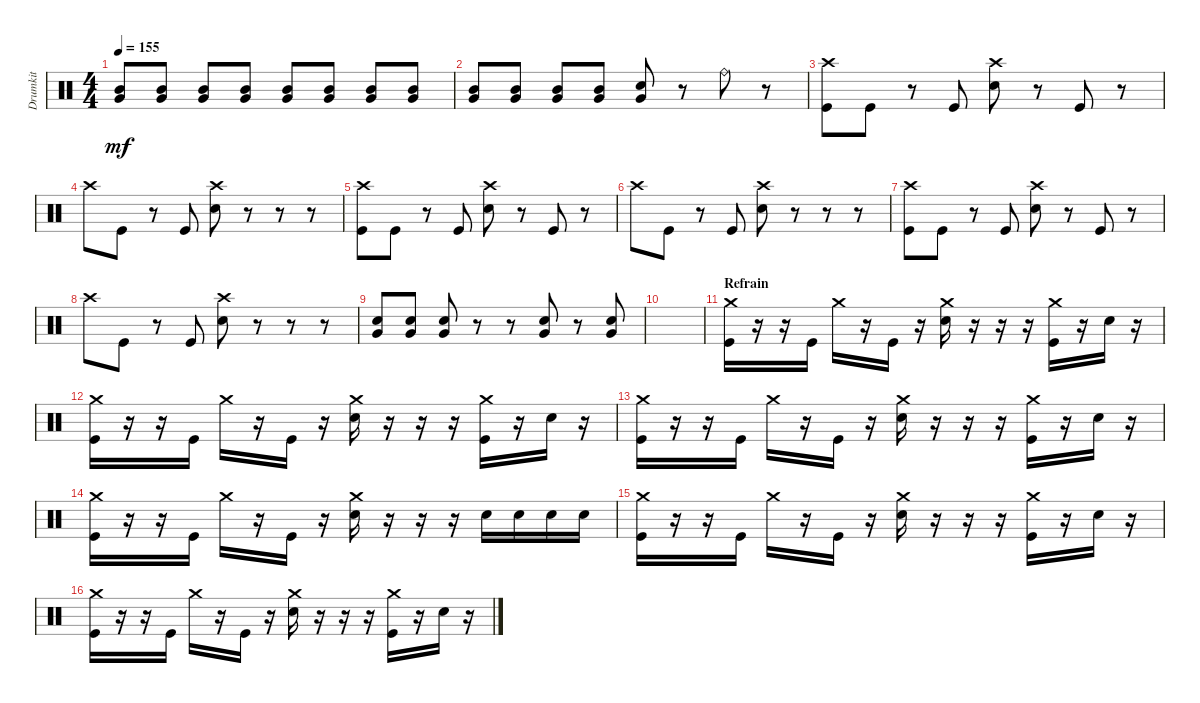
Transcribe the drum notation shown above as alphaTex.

\track ("Drumkit" "Drumkit") {instrument percussion}
\staff {score}
\articulation defaults
\ts (4 4)
\tempo 155
\clef neutral
\ks c
("Very Low Tom (hit)" "Mid Tom (hit)").8{dy mf} ("Very Low Tom (hit)" "Mid Tom (hit)").8 ("Very Low Tom (hit)" "Mid Tom (hit)").8 ("Very Low Tom (hit)" "Mid Tom (hit)").8 ("Very Low Tom (hit)" "Mid Tom (hit)").8 ("Very Low Tom (hit)" "Mid Tom (hit)").8 ("Very Low Tom (hit)" "Mid Tom (hit)").8 ("Very Low Tom (hit)" "Mid Tom (hit)").8 |
("Mid Tom (hit)" "Very Low Tom (hit)").8 ("Mid Tom (hit)" "Very Low Tom (hit)").8 ("Mid Tom (hit)" "Very Low Tom (hit)").8 ("Mid Tom (hit)" "Very Low Tom (hit)").8 ("Very Low Tom (hit)" "Snare (hit) 2").8 r.8 "Ride (bell)".8 r.8 |
("Kick (hit)" "Crash high (hit)").8 "Kick (hit)".8 r.8 "Kick (hit)".8 ("Snare (hit) 2" "Crash high (hit)").8 r.8 "Kick (hit)".8 r.8 |
"Crash high (hit)".8 "Kick (hit)".8 r.8 "Kick (hit)".8 ("Snare (hit) 2" "Crash high (hit)").8 r.8 r.8 r.8 |
("Kick (hit)" "Crash high (hit)").8 "Kick (hit)".8 r.8 "Kick (hit)".8 ("Snare (hit) 2" "Crash high (hit)").8 r.8 "Kick (hit)".8 r.8 |
"Crash high (hit)".8 "Kick (hit)".8 r.8 "Kick (hit)".8 ("Snare (hit) 2" "Crash high (hit)").8 r.8 r.8 r.8 |
("Kick (hit)" "Crash high (hit)").8 "Kick (hit)".8 r.8 "Kick (hit)".8 ("Snare (hit) 2" "Crash high (hit)").8 r.8 "Kick (hit)".8 r.8 |
"Crash high (hit)".8 "Kick (hit)".8 r.8 "Kick (hit)".8 ("Snare (hit) 2" "Crash high (hit)").8 r.8 r.8 r.8 |
("Snare (hit) 2" "Very Low Tom (hit)").8 ("Snare (hit) 2" "Very Low Tom (hit)").8 ("Snare (hit) 2" "Very Low Tom (hit)").8 r.8 r.8 ("Snare (hit) 2" "Very Low Tom (hit)").8 r.8 ("Snare (hit) 2" "Very Low Tom (hit)").8 |
|
\section ("" "Refrain")
("Kick (hit)" "Crash medium (hit)").16 r.16 r.16 "Kick (hit)".16 "Crash medium (hit)".16 r.16 "Kick (hit)".16 r.16 ("Snare (hit) 2" "Crash medium (hit)").16 r.16 r.16 r.16 ("Kick (hit)" "Crash medium (hit)").16 r.16 "Snare (hit) 2".16 r.16 |
("Kick (hit)" "Crash medium (hit)").16 r.16 r.16 "Kick (hit)".16 "Crash medium (hit)".16 r.16 "Kick (hit)".16 r.16 ("Snare (hit) 2" "Crash medium (hit)").16 r.16 r.16 r.16 ("Kick (hit)" "Crash medium (hit)").16 r.16 "Snare (hit) 2".16 r.16 |
("Kick (hit)" "Crash medium (hit)").16 r.16 r.16 "Kick (hit)".16 "Crash medium (hit)".16 r.16 "Kick (hit)".16 r.16 ("Snare (hit) 2" "Crash medium (hit)").16 r.16 r.16 r.16 ("Kick (hit)" "Crash medium (hit)").16 r.16 "Snare (hit) 2".16 r.16 |
("Kick (hit)" "Crash medium (hit)").16 r.16 r.16 "Kick (hit)".16 "Crash medium (hit)".16 r.16 "Kick (hit)".16 r.16 ("Snare (hit) 2" "Crash medium (hit)").16 r.16 r.16 r.16 "Snare (hit) 2".16 "Snare (hit) 2".16 "Snare (hit) 2".16 "Snare (hit) 2".16 |
("Kick (hit)" "Crash medium (hit)").16 r.16 r.16 "Kick (hit)".16 "Crash medium (hit)".16 r.16 "Kick (hit)".16 r.16 ("Snare (hit) 2" "Crash medium (hit)").16 r.16 r.16 r.16 ("Kick (hit)" "Crash medium (hit)").16 r.16 "Snare (hit) 2".16 r.16 |
("Kick (hit)" "Crash medium (hit)").16 r.16 r.16 "Kick (hit)".16 "Crash medium (hit)".16 r.16 "Kick (hit)".16 r.16 ("Snare (hit) 2" "Crash medium (hit)").16 r.16 r.16 r.16 ("Kick (hit)" "Crash medium (hit)").16 r.16 "Snare (hit) 2".16 r.16
